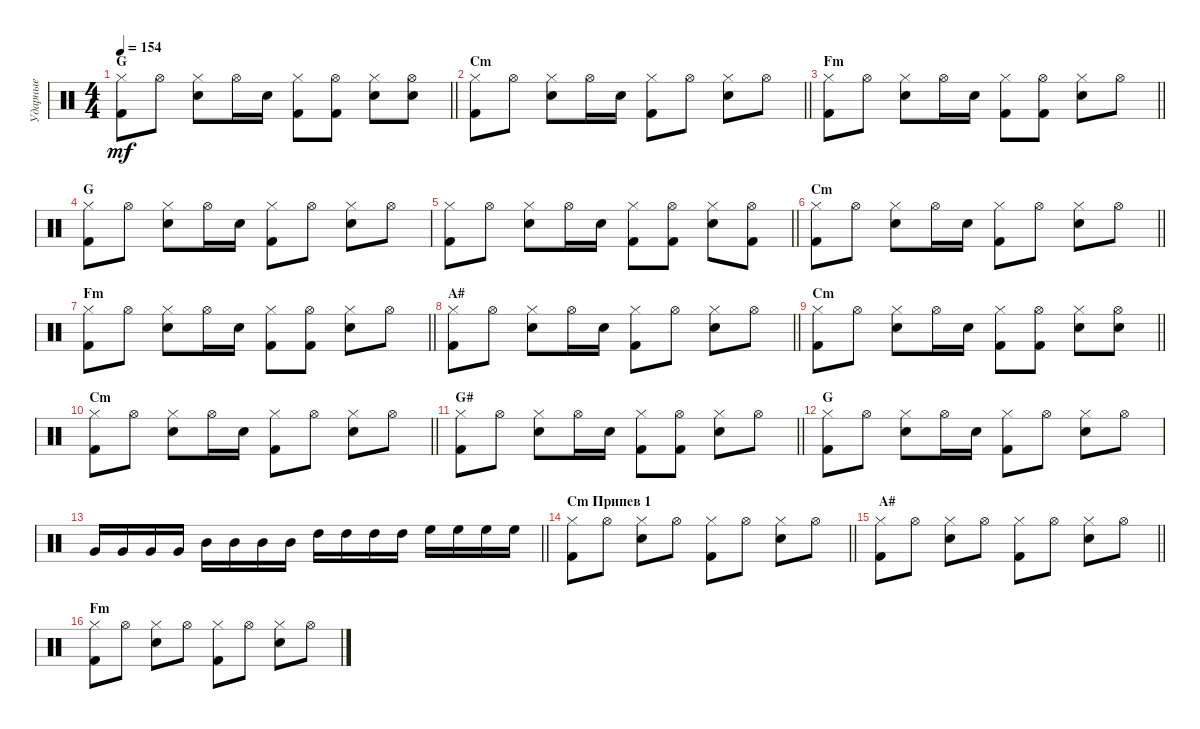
\track ("Ударные" "Ударные") {instrument percussion}
\staff {score}
\articulation defaults
\ts (4 4)
\section ("" "G")
\tempo 154
\clef neutral
\barLineRight lightlight
\ks c
("Hi-Hat (closed)" "Kick (hit) 2").8{dy mf} "Hi-Hat (open)".8 ("Hi-Hat (closed)" "Electric Snare (hit)").8 "Hi-Hat (open)".16 "Electric Snare (hit)".16 ("Hi-Hat (closed)" "Kick (hit) 2").8 ("Hi-Hat (open)" "Kick (hit) 2").8 ("Hi-Hat (closed)" "Electric Snare (hit)").8 ("Hi-Hat (open)" "Electric Snare (hit)").8 |
\section ("" "Cm")
\barLineRight lightlight
("Hi-Hat (closed)" "Kick (hit) 2").8 "Hi-Hat (open)".8 ("Hi-Hat (closed)" "Electric Snare (hit)").8 "Hi-Hat (open)".16 "Electric Snare (hit)".16 ("Hi-Hat (closed)" "Kick (hit) 2").8 "Hi-Hat (open)".8 ("Hi-Hat (closed)" "Electric Snare (hit)").8 "Hi-Hat (open)".8 |
\section ("" "Fm")
\barLineRight lightlight
("Hi-Hat (closed)" "Kick (hit) 2").8 "Hi-Hat (open)".8 ("Hi-Hat (closed)" "Electric Snare (hit)").8 "Hi-Hat (open)".16 "Electric Snare (hit)".16 ("Hi-Hat (closed)" "Kick (hit) 2").8 ("Hi-Hat (open)" "Kick (hit) 2").8 ("Hi-Hat (closed)" "Electric Snare (hit)").8 "Hi-Hat (open)".8 |
\section ("" "G")
("Hi-Hat (closed)" "Kick (hit) 2").8 "Hi-Hat (open)".8 ("Hi-Hat (closed)" "Electric Snare (hit)").8 "Hi-Hat (open)".16 "Electric Snare (hit)".16 ("Hi-Hat (closed)" "Kick (hit) 2").8 "Hi-Hat (open)".8 ("Hi-Hat (closed)" "Electric Snare (hit)").8 "Hi-Hat (open)".8 |
\barLineRight lightlight
("Hi-Hat (closed)" "Kick (hit) 2").8 "Hi-Hat (open)".8 ("Hi-Hat (closed)" "Electric Snare (hit)").8 "Hi-Hat (open)".16 "Electric Snare (hit)".16 ("Hi-Hat (closed)" "Kick (hit) 2").8 ("Hi-Hat (open)" "Kick (hit) 2").8 ("Hi-Hat (closed)" "Electric Snare (hit)").8 ("Hi-Hat (open)" "Kick (hit) 2").8 |
\section ("" "Cm")
\barLineRight lightlight
("Hi-Hat (closed)" "Kick (hit) 2").8 "Hi-Hat (open)".8 ("Hi-Hat (closed)" "Electric Snare (hit)").8 "Hi-Hat (open)".16 "Electric Snare (hit)".16 ("Hi-Hat (closed)" "Kick (hit) 2").8 "Hi-Hat (open)".8 ("Hi-Hat (closed)" "Electric Snare (hit)").8 "Hi-Hat (open)".8 |
\section ("" "Fm")
\barLineRight lightlight
("Hi-Hat (closed)" "Kick (hit) 2").8 "Hi-Hat (open)".8 ("Hi-Hat (closed)" "Electric Snare (hit)").8 "Hi-Hat (open)".16 "Electric Snare (hit)".16 ("Hi-Hat (closed)" "Kick (hit) 2").8 ("Hi-Hat (open)" "Kick (hit) 2").8 ("Hi-Hat (closed)" "Electric Snare (hit)").8 "Hi-Hat (open)".8 |
\section ("" "A#")
\barLineRight lightlight
("Hi-Hat (closed)" "Kick (hit) 2").8 "Hi-Hat (open)".8 ("Hi-Hat (closed)" "Electric Snare (hit)").8 "Hi-Hat (open)".16 "Electric Snare (hit)".16 ("Hi-Hat (closed)" "Kick (hit) 2").8 "Hi-Hat (open)".8 ("Hi-Hat (closed)" "Electric Snare (hit)").8 "Hi-Hat (open)".8 |
\section ("" "Cm")
\barLineRight lightlight
("Hi-Hat (closed)" "Kick (hit) 2").8 "Hi-Hat (open)".8 ("Hi-Hat (closed)" "Electric Snare (hit)").8 "Hi-Hat (open)".16 "Electric Snare (hit)".16 ("Hi-Hat (closed)" "Kick (hit) 2").8 ("Hi-Hat (open)" "Kick (hit) 2").8 ("Hi-Hat (closed)" "Electric Snare (hit)").8 ("Hi-Hat (open)" "Electric Snare (hit)").8 |
\section ("" "Cm")
\barLineRight lightlight
("Hi-Hat (closed)" "Kick (hit) 2").8 "Hi-Hat (open)".8 ("Hi-Hat (closed)" "Electric Snare (hit)").8 "Hi-Hat (open)".16 "Electric Snare (hit)".16 ("Hi-Hat (closed)" "Kick (hit) 2").8 "Hi-Hat (open)".8 ("Hi-Hat (closed)" "Electric Snare (hit)").8 "Hi-Hat (open)".8 |
\section ("" "G#")
\barLineRight lightlight
("Hi-Hat (closed)" "Kick (hit) 2").8 "Hi-Hat (open)".8 ("Hi-Hat (closed)" "Electric Snare (hit)").8 "Hi-Hat (open)".16 "Electric Snare (hit)".16 ("Hi-Hat (closed)" "Kick (hit) 2").8 ("Hi-Hat (open)" "Kick (hit) 2").8 ("Hi-Hat (closed)" "Electric Snare (hit)").8 "Hi-Hat (open)".8 |
\section ("" "G")
("Hi-Hat (closed)" "Kick (hit) 2").8 "Hi-Hat (open)".8 ("Hi-Hat (closed)" "Electric Snare (hit)").8 "Hi-Hat (open)".16 "Electric Snare (hit)".16 ("Hi-Hat (closed)" "Kick (hit) 2").8 "Hi-Hat (open)".8 ("Hi-Hat (closed)" "Electric Snare (hit)").8 "Hi-Hat (open)".8 |
\barLineRight lightlight "Very Low Tom (hit)".16 "Very Low Tom (hit)".16 "Very Low Tom (hit)".16 "Very Low Tom (hit)".16 "Mid Tom (hit)".16 "Mid Tom (hit)".16 "Mid Tom (hit)".16 "Mid Tom (hit)".16 "High Tom (hit)".16 "High Tom (hit)".16 "High Tom (hit)".16 "High Tom (hit)".16 "High Floor Tom (hit)".16 "High Floor Tom (hit)".16 "High Floor Tom (hit)".16 "High Floor Tom (hit)".16
|
\section ("" "Cm Припев 1")
\barLineRight lightlight
("Hi-Hat (closed)" "Kick (hit) 2").8 "Hi-Hat (open)".8 ("Hi-Hat (closed)" "Electric Snare (hit)").8 "Hi-Hat (open)".8 ("Hi-Hat (closed)" "Kick (hit) 2").8 "Hi-Hat (open)".8 ("Hi-Hat (closed)" "Electric Snare (hit)").8 "Hi-Hat (open)".8 |
\section ("" " A#")
\barLineRight lightlight
("Hi-Hat (closed)" "Kick (hit) 2").8 "Hi-Hat (open)".8 ("Hi-Hat (closed)" "Electric Snare (hit)").8 "Hi-Hat (open)".8 ("Hi-Hat (closed)" "Kick (hit) 2").8 "Hi-Hat (open)".8 ("Hi-Hat (closed)" "Electric Snare (hit)").8 "Hi-Hat (open)".8 |
\section ("" "Fm")
("Hi-Hat (closed)" "Kick (hit) 2").8 "Hi-Hat (open)".8 ("Hi-Hat (closed)" "Electric Snare (hit)").8 "Hi-Hat (open)".8 ("Hi-Hat (closed)" "Kick (hit) 2").8 "Hi-Hat (open)".8 ("Hi-Hat (closed)" "Electric Snare (hit)").8 "Hi-Hat (open)".8
